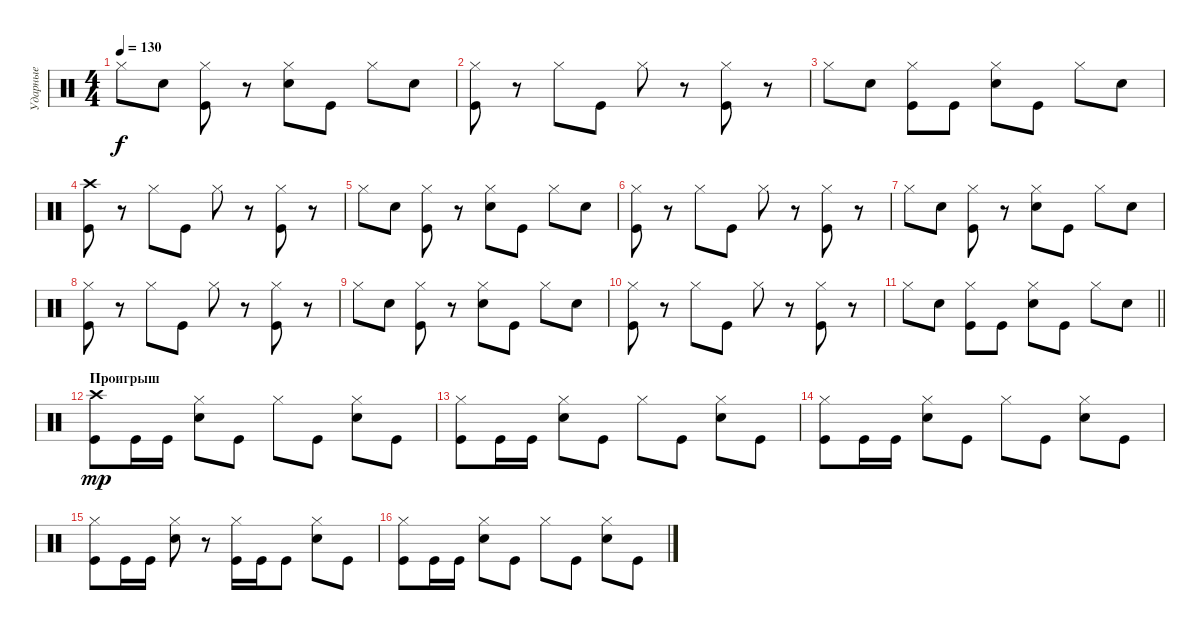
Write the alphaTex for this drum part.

\track ("Ударные" "Ударные") {instrument percussion}
\staff {score}
\articulation defaults
\ts (4 4)
\tempo 130
\clef neutral
\ks c "Hi-Hat (closed)".8{dy f} "Snare (hit) 2".8
("Hi-Hat (closed)" "Kick (hit)").8 r.8 ("Hi-Hat (closed)" "Snare (hit) 2").8 "Kick (hit)".8 "Hi-Hat (closed)".8 "Snare (hit) 2".8 |
("Hi-Hat (closed)" "Kick (hit)").8 r.8 "Hi-Hat (closed)".8 "Kick (hit)".8 "Hi-Hat (closed)".8 r.8 ("Hi-Hat (closed)" "Kick (hit)").8 r.8 |
"Hi-Hat (closed)".8 "Snare (hit) 2".8 ("Hi-Hat (closed)" "Kick (hit)").8 "Kick (hit)".8 ("Hi-Hat (closed)" "Snare (hit) 2").8 "Kick (hit)".8 "Hi-Hat (closed)".8 "Snare (hit) 2".8 |
("Crash high (hit)" "Kick (hit)").8 r.8 "Hi-Hat (closed)".8 "Kick (hit)".8 "Hi-Hat (closed)".8 r.8 ("Hi-Hat (closed)" "Kick (hit)").8 r.8 |
"Hi-Hat (closed)".8 "Snare (hit) 2".8 ("Hi-Hat (closed)" "Kick (hit)").8 r.8 ("Hi-Hat (closed)" "Snare (hit) 2").8 "Kick (hit)".8 "Hi-Hat (closed)".8 "Snare (hit) 2".8 |
("Hi-Hat (closed)" "Kick (hit)").8 r.8 "Hi-Hat (closed)".8 "Kick (hit)".8 "Hi-Hat (closed)".8 r.8 ("Hi-Hat (closed)" "Kick (hit)").8 r.8 |
"Hi-Hat (closed)".8 "Snare (hit) 2".8 ("Hi-Hat (closed)" "Kick (hit)").8 r.8 ("Hi-Hat (closed)" "Snare (hit) 2").8 "Kick (hit)".8 "Hi-Hat (closed)".8 "Snare (hit) 2".8 |
("Hi-Hat (closed)" "Kick (hit)").8 r.8 "Hi-Hat (closed)".8 "Kick (hit)".8 "Hi-Hat (closed)".8 r.8 ("Hi-Hat (closed)" "Kick (hit)").8 r.8 |
"Hi-Hat (closed)".8 "Snare (hit) 2".8 ("Hi-Hat (closed)" "Kick (hit)").8 r.8 ("Hi-Hat (closed)" "Snare (hit) 2").8 "Kick (hit)".8 "Hi-Hat (closed)".8 "Snare (hit) 2".8 |
("Hi-Hat (closed)" "Kick (hit)").8 r.8 "Hi-Hat (closed)".8 "Kick (hit)".8 "Hi-Hat (closed)".8 r.8 ("Hi-Hat (closed)" "Kick (hit)").8 r.8 |
\barLineRight lightlight "Hi-Hat (closed)".8 "Snare (hit) 2".8
("Hi-Hat (closed)" "Kick (hit)").8 "Kick (hit)".8 ("Hi-Hat (closed)" "Snare (hit) 2").8 "Kick (hit)".8 "Hi-Hat (closed)".8 "Snare (hit) 2".8 |
\section ("" "Проигрыш")
("Crash high (hit)" "Kick (hit)").8{dy mp} "Kick (hit)".16 "Kick (hit)".16 ("Hi-Hat (closed)" "Snare (hit) 2").8 "Kick (hit)".8 "Hi-Hat (closed)".8 "Kick (hit)".8 ("Hi-Hat (closed)" "Snare (hit) 2").8 "Kick (hit)".8 |
("Hi-Hat (closed)" "Kick (hit)").8 "Kick (hit)".16 "Kick (hit)".16 ("Hi-Hat (closed)" "Snare (hit) 2").8 "Kick (hit)".8 "Hi-Hat (closed)".8 "Kick (hit)".8 ("Hi-Hat (closed)" "Snare (hit) 2").8 "Kick (hit)".8 |
("Hi-Hat (closed)" "Kick (hit)").8 "Kick (hit)".16 "Kick (hit)".16 ("Hi-Hat (closed)" "Snare (hit) 2").8 "Kick (hit)".8 "Hi-Hat (closed)".8 "Kick (hit)".8 ("Hi-Hat (closed)" "Snare (hit) 2").8 "Kick (hit)".8 |
("Hi-Hat (closed)" "Kick (hit)").8 "Kick (hit)".16 "Kick (hit)".16 ("Hi-Hat (closed)" "Snare (hit) 2").8 r.8 ("Hi-Hat (closed)" "Kick (hit)").16 "Kick (hit)".16 "Kick (hit)".8 ("Hi-Hat (closed)" "Snare (hit) 2").8 "Kick (hit)".8 |
("Hi-Hat (closed)" "Kick (hit)").8 "Kick (hit)".16 "Kick (hit)".16 ("Hi-Hat (closed)" "Snare (hit) 2").8 "Kick (hit)".8 "Hi-Hat (closed)".8 "Kick (hit)".8 ("Hi-Hat (closed)" "Snare (hit) 2").8 "Kick (hit)".8
